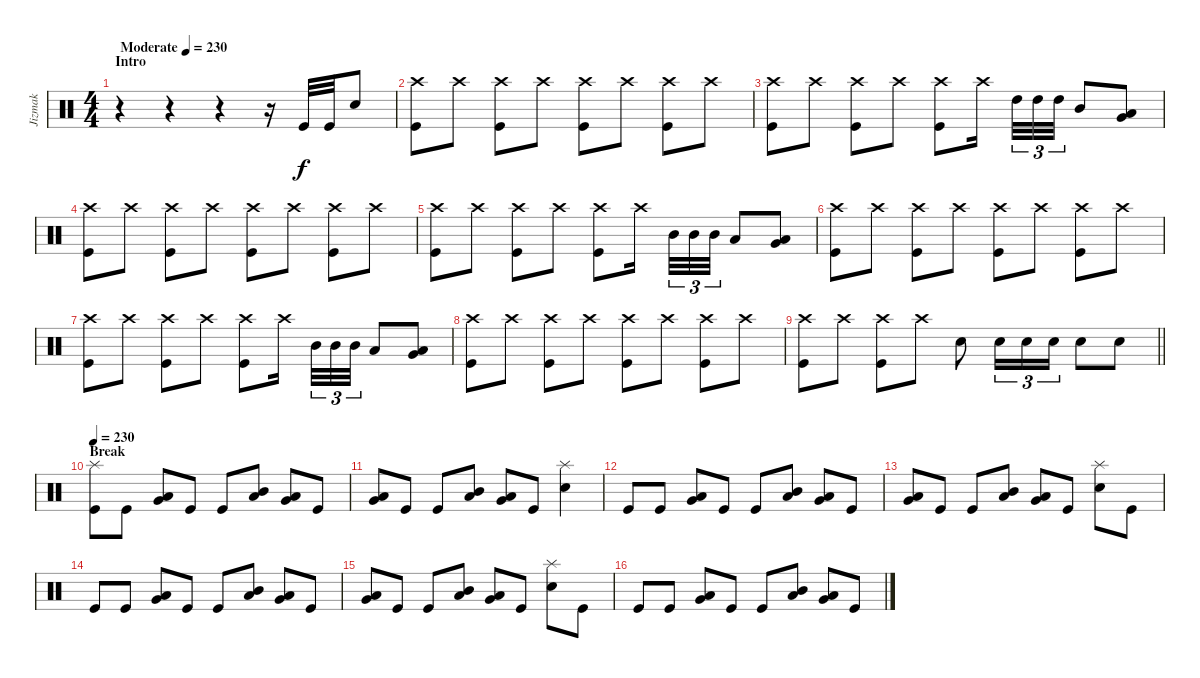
\track ("Jizmak" "Jizmak") {instrument percussion}
\staff {score}
\articulation defaults
\ts (4 4)
\section ("" "Intro")
\tempo (230 "Moderate")
\tempo 70
\tempo (230 "Moderate")
\clef neutral
\ks c
r.4{dy f} r.4 r.4 r.16 "Kick (hit)".32 "Kick (hit)".32 "Snare (hit) 2".8 |
("Crash high (hit)" "Kick (hit)").8 "Crash high (hit)".8 ("Crash high (hit)" "Kick (hit)").8 "Crash high (hit)".8 ("Crash high (hit)" "Kick (hit)").8 "Crash high (hit)".8 ("Crash high (hit)" "Kick (hit)").8 "Crash high (hit)".8 |
("Crash high (hit)" "Kick (hit)").8 "Crash high (hit)".8 ("Crash high (hit)" "Kick (hit)").8 "Crash high (hit)".8 ("Crash high (hit)" "Kick (hit)").8 "Crash high (hit)".16{beam splitsecondary} "High Tom (hit)".32{tu (3 2)} "High Tom (hit)".32{tu (3 2)} "High Tom (hit)".32{tu (3 2)} "Mid Tom (hit)".8 ("Low Tom (hit)" "Very Low Tom (hit)").8 |
("Crash high (hit)" "Kick (hit)").8 "Crash high (hit)".8 ("Crash high (hit)" "Kick (hit)").8 "Crash high (hit)".8 ("Crash high (hit)" "Kick (hit)").8 "Crash high (hit)".8 ("Crash high (hit)" "Kick (hit)").8 "Crash high (hit)".8 |
("Crash high (hit)" "Kick (hit)").8 "Crash high (hit)".8 ("Crash high (hit)" "Kick (hit)").8 "Crash high (hit)".8 ("Crash high (hit)" "Kick (hit)").8 "Crash high (hit)".16{beam splitsecondary} "Mid Tom (hit)".32{tu (3 2)} "Mid Tom (hit)".32{tu (3 2)} "Mid Tom (hit)".32{tu (3 2)} "Low Tom (hit)".8 ("Very Low Tom (hit)" "Low Floor Tom (hit)").8 |
("Crash high (hit)" "Kick (hit)").8 "Crash high (hit)".8 ("Crash high (hit)" "Kick (hit)").8 "Crash high (hit)".8 ("Crash high (hit)" "Kick (hit)").8 "Crash high (hit)".8 ("Crash high (hit)" "Kick (hit)").8 "Crash high (hit)".8 |
("Crash high (hit)" "Kick (hit)").8 "Crash high (hit)".8 ("Crash high (hit)" "Kick (hit)").8 "Crash high (hit)".8 ("Crash high (hit)" "Kick (hit)").8 "Crash high (hit)".16{beam splitsecondary} "Mid Tom (hit)".32{tu (3 2)} "Mid Tom (hit)".32{tu (3 2)} "Mid Tom (hit)".32{tu (3 2)} "Low Tom (hit)".8 ("Very Low Tom (hit)" "Low Floor Tom (hit)").8 |
("Crash high (hit)" "Kick (hit)").8 "Crash high (hit)".8 ("Crash high (hit)" "Kick (hit)").8 "Crash high (hit)".8 ("Crash high (hit)" "Kick (hit)").8 "Crash high (hit)".8 ("Crash high (hit)" "Kick (hit)").8 "Crash high (hit)".8 |
\barLineRight lightlight
("Crash high (hit)" "Kick (hit)").8 "Crash high (hit)".8 ("Crash high (hit)" "Kick (hit)").8 "Crash high (hit)".8 "Snare (hit) 2".8 "Snare (hit) 2".16{tu (3 2)} "Snare (hit) 2".16{tu (3 2)} "Snare (hit) 2".16{tu (3 2)} "Snare (hit) 2".8 "Snare (hit) 2".8 |
\section ("" "Break")
\tempo 230
("Splash (hit)" "Kick (hit)").8 "Kick (hit)".8 ("Low Tom (hit)" "Very Low Tom (hit)").8 "Kick (hit)".8 "Kick (hit)".8 ("Mid Tom (hit)" "Low Tom (hit)").8 ("Low Tom (hit)" "Very Low Tom (hit)").8 "Kick (hit)".8 |
("Low Tom (hit)" "Very Low Tom (hit)").8 "Kick (hit)".8 "Kick (hit)".8 ("Mid Tom (hit)" "Low Tom (hit)").8 ("Low Tom (hit)" "Very Low Tom (hit)").8 "Kick (hit)".8 ("Splash (hit)" "Snare (hit) 2").4 |
"Kick (hit)".8 "Kick (hit)".8 ("Low Tom (hit)" "Very Low Tom (hit)").8 "Kick (hit)".8 "Kick (hit)".8 ("Mid Tom (hit)" "Low Tom (hit)").8 ("Low Tom (hit)" "Very Low Tom (hit)").8 "Kick (hit)".8 |
("Low Tom (hit)" "Very Low Tom (hit)").8 "Kick (hit)".8 "Kick (hit)".8 ("Mid Tom (hit)" "Low Tom (hit)").8 ("Low Tom (hit)" "Very Low Tom (hit)").8 "Kick (hit)".8 ("Splash (hit)" "Snare (hit) 2").8 "Kick (hit)".8 |
"Kick (hit)".8 "Kick (hit)".8 ("Low Tom (hit)" "Very Low Tom (hit)").8 "Kick (hit)".8 "Kick (hit)".8 ("Mid Tom (hit)" "Low Tom (hit)").8 ("Low Tom (hit)" "Very Low Tom (hit)").8 "Kick (hit)".8 |
("Low Tom (hit)" "Very Low Tom (hit)").8 "Kick (hit)".8 "Kick (hit)".8 ("Mid Tom (hit)" "Low Tom (hit)").8 ("Low Tom (hit)" "Very Low Tom (hit)").8 "Kick (hit)".8 ("Splash (hit)" "Snare (hit) 2").8 "Kick (hit)".8 |
"Kick (hit)".8 "Kick (hit)".8 ("Low Tom (hit)" "Very Low Tom (hit)").8 "Kick (hit)".8 "Kick (hit)".8 ("Mid Tom (hit)" "Low Tom (hit)").8 ("Low Tom (hit)" "Very Low Tom (hit)").8 "Kick (hit)".8
